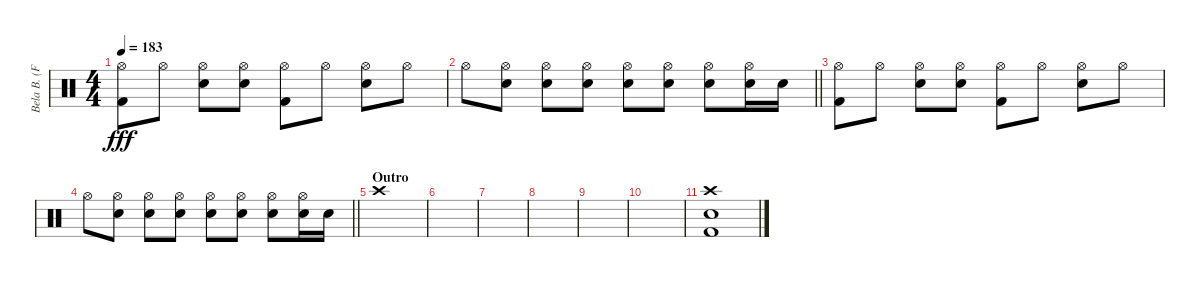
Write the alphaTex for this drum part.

\track ("Bela B. (Felsenheimer)" "Bela B. (F") {instrument percussion}
\staff {score}
\articulation defaults
\ts (4 4)
\tempo 183
\clef neutral
\ks c
("Hi-Hat (open)" "Kick (hit) 2").8{dy fff} "Hi-Hat (open)".8 ("Hi-Hat (open)" "Snare (hit) 2").8 ("Hi-Hat (open)" "Snare (hit) 2").8 ("Hi-Hat (open)" "Kick (hit) 2").8 "Hi-Hat (open)".8 ("Hi-Hat (open)" "Snare (hit) 2").8 "Hi-Hat (open)".8 |
\barLineRight lightlight "Hi-Hat (open)".8
("Hi-Hat (open)" "Snare (hit) 2").8 ("Hi-Hat (open)" "Snare (hit) 2").8 ("Hi-Hat (open)" "Snare (hit) 2").8 ("Hi-Hat (open)" "Snare (hit) 2").8 ("Hi-Hat (open)" "Snare (hit) 2").8 ("Hi-Hat (open)" "Snare (hit) 2").8 ("Hi-Hat (open)" "Snare (hit) 2").16 "Snare (hit) 2".16 |
("Hi-Hat (open)" "Kick (hit) 2").8 "Hi-Hat (open)".8 ("Hi-Hat (open)" "Snare (hit) 2").8 ("Hi-Hat (open)" "Snare (hit) 2").8 ("Hi-Hat (open)" "Kick (hit) 2").8 "Hi-Hat (open)".8 ("Hi-Hat (open)" "Snare (hit) 2").8 "Hi-Hat (open)".8 |
\barLineRight lightlight "Hi-Hat (open)".8
("Hi-Hat (open)" "Snare (hit) 2").8 ("Hi-Hat (open)" "Snare (hit) 2").8 ("Hi-Hat (open)" "Snare (hit) 2").8 ("Hi-Hat (open)" "Snare (hit) 2").8 ("Hi-Hat (open)" "Snare (hit) 2").8 ("Hi-Hat (open)" "Snare (hit) 2").8 ("Hi-Hat (open)" "Snare (hit) 2").16 "Snare (hit) 2".16 |
\section ("" "Outro")
"Crash high (hit)".1 |
|
|
|
|
|
("Snare (hit) 2" "Kick (hit) 2" "Crash high (hit)").1
